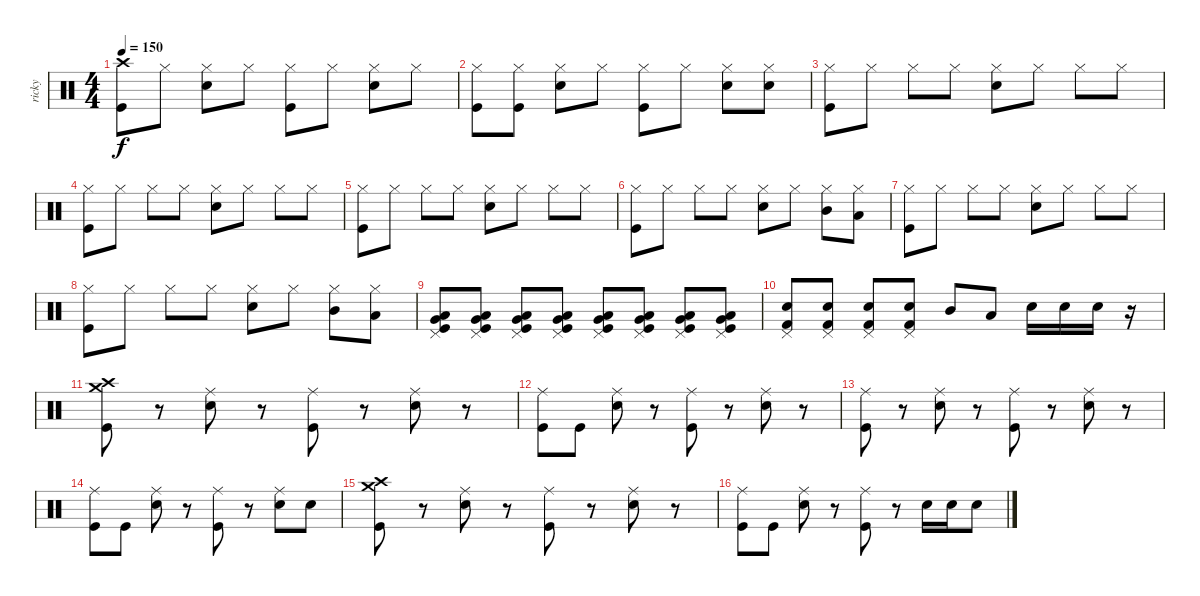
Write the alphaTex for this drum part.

\track ("ricky" "ricky") {instrument percussion}
\staff {score}
\articulation defaults
\ts (4 4)
\tempo 150
\clef neutral
\ks c
("Crash high (hit)" "Kick (hit)").8{dy f} "Hi-Hat (closed)".8 ("Hi-Hat (closed)" "Electric Snare (hit)").8 "Hi-Hat (closed)".8 ("Hi-Hat (closed)" "Kick (hit)").8 "Hi-Hat (closed)".8 ("Hi-Hat (closed)" "Electric Snare (hit)").8 "Hi-Hat (closed)".8 |
("Hi-Hat (closed)" "Kick (hit)").8 ("Hi-Hat (closed)" "Kick (hit)").8 ("Hi-Hat (closed)" "Electric Snare (hit)").8 "Hi-Hat (closed)".8 ("Hi-Hat (closed)" "Kick (hit)").8 "Hi-Hat (closed)".8 ("Hi-Hat (closed)" "Electric Snare (hit)").8 ("Hi-Hat (closed)" "Electric Snare (hit)").8 |
("Hi-Hat (closed)" "Kick (hit)").8 "Hi-Hat (closed)".8 "Hi-Hat (closed)".8 "Hi-Hat (closed)".8 ("Hi-Hat (closed)" "Electric Snare (hit)").8 "Hi-Hat (closed)".8 "Hi-Hat (closed)".8 "Hi-Hat (closed)".8 |
("Hi-Hat (closed)" "Kick (hit)").8 "Hi-Hat (closed)".8 "Hi-Hat (closed)".8 "Hi-Hat (closed)".8 ("Hi-Hat (closed)" "Electric Snare (hit)").8 "Hi-Hat (closed)".8 "Hi-Hat (closed)".8 "Hi-Hat (closed)".8 |
("Hi-Hat (closed)" "Kick (hit)").8 "Hi-Hat (closed)".8 "Hi-Hat (closed)".8 "Hi-Hat (closed)".8 ("Hi-Hat (closed)" "Electric Snare (hit)").8 "Hi-Hat (closed)".8 "Hi-Hat (closed)".8 "Hi-Hat (closed)".8 |
("Hi-Hat (closed)" "Kick (hit)").8 "Hi-Hat (closed)".8 "Hi-Hat (closed)".8 "Hi-Hat (closed)".8 ("Hi-Hat (closed)" "Electric Snare (hit)").8 "Hi-Hat (closed)".8 ("Hi-Hat (closed)" "Mid Tom (hit)").8 ("Hi-Hat (closed)" "Low Tom (hit)").8 |
("Hi-Hat (closed)" "Kick (hit)").8 "Hi-Hat (closed)".8 "Hi-Hat (closed)".8 "Hi-Hat (closed)".8 ("Hi-Hat (closed)" "Electric Snare (hit)").8 "Hi-Hat (closed)".8 "Hi-Hat (closed)".8 "Hi-Hat (closed)".8 |
("Hi-Hat (closed)" "Kick (hit)").8 "Hi-Hat (closed)".8 "Hi-Hat (closed)".8 "Hi-Hat (closed)".8 ("Hi-Hat (closed)" "Electric Snare (hit)").8 "Hi-Hat (closed)".8 ("Hi-Hat (closed)" "Mid Tom (hit)").8 ("Hi-Hat (closed)" "Low Tom (hit)").8 |
("Pedal Hi-Hat (hit)" "Low Tom (hit)" "Very Low Tom (hit)" "Kick (hit)").8 ("Pedal Hi-Hat (hit)" "Low Tom (hit)" "Very Low Tom (hit)" "Kick (hit)").8 ("Pedal Hi-Hat (hit)" "Low Tom (hit)" "Very Low Tom (hit)" "Kick (hit)").8 ("Pedal Hi-Hat (hit)" "Low Tom (hit)" "Very Low Tom (hit)" "Kick (hit)").8 ("Pedal Hi-Hat (hit)" "Low Tom (hit)" "Very Low Tom (hit)" "Kick (hit)").8 ("Pedal Hi-Hat (hit)" "Low Tom (hit)" "Very Low Tom (hit)" "Kick (hit)").8 ("Pedal Hi-Hat (hit)" "Low Tom (hit)" "Very Low Tom (hit)" "Kick (hit)").8 ("Pedal Hi-Hat (hit)" "Low Tom (hit)" "Very Low Tom (hit)" "Kick (hit)").8 |
("Pedal Hi-Hat (hit)" "Electric Snare (hit)" "Kick (hit) 2").8 ("Pedal Hi-Hat (hit)" "Electric Snare (hit)" "Kick (hit) 2").8 ("Pedal Hi-Hat (hit)" "Electric Snare (hit)" "Kick (hit) 2").8 ("Pedal Hi-Hat (hit)" "Electric Snare (hit)" "Kick (hit) 2").8 "Mid Tom (hit)".8 "Low Tom (hit)".8 "Electric Snare (hit)".16 "Electric Snare (hit)".16 "Electric Snare (hit)".16 r.16 |
("Crash medium (hit)" "Crash high (hit)" "Kick (hit)").8 r.8 ("Ride (middle)" "Electric Snare (hit)").8 r.8 ("Ride (middle)" "Kick (hit)").8 r.8 ("Ride (middle)" "Electric Snare (hit)").8 r.8 |
("Ride (middle)" "Kick (hit)").8 "Kick (hit)".8 ("Ride (middle)" "Electric Snare (hit)").8 r.8 ("Ride (middle)" "Kick (hit)").8 r.8 ("Ride (middle)" "Electric Snare (hit)").8 r.8 |
("Ride (middle)" "Kick (hit)").8 r.8 ("Ride (middle)" "Electric Snare (hit)").8 r.8 ("Ride (middle)" "Kick (hit)").8 r.8 ("Ride (middle)" "Electric Snare (hit)").8 r.8 |
("Ride (middle)" "Kick (hit)").8 "Kick (hit)".8 ("Ride (middle)" "Electric Snare (hit)").8 r.8 ("Ride (middle)" "Kick (hit)").8 r.8 ("Ride (middle)" "Electric Snare (hit)").8 "Electric Snare (hit)".8 |
("Crash medium (hit)" "Crash high (hit)" "Kick (hit)").8 r.8 ("Ride (middle)" "Electric Snare (hit)").8 r.8 ("Ride (middle)" "Kick (hit)").8 r.8 ("Ride (middle)" "Electric Snare (hit)").8 r.8 |
("Ride (middle)" "Kick (hit)").8 "Kick (hit)".8 ("Ride (middle)" "Electric Snare (hit)").8 r.8 ("Ride (middle)" "Kick (hit)").8 r.8 "Electric Snare (hit)".16 "Electric Snare (hit)".16 "Electric Snare (hit)".8
